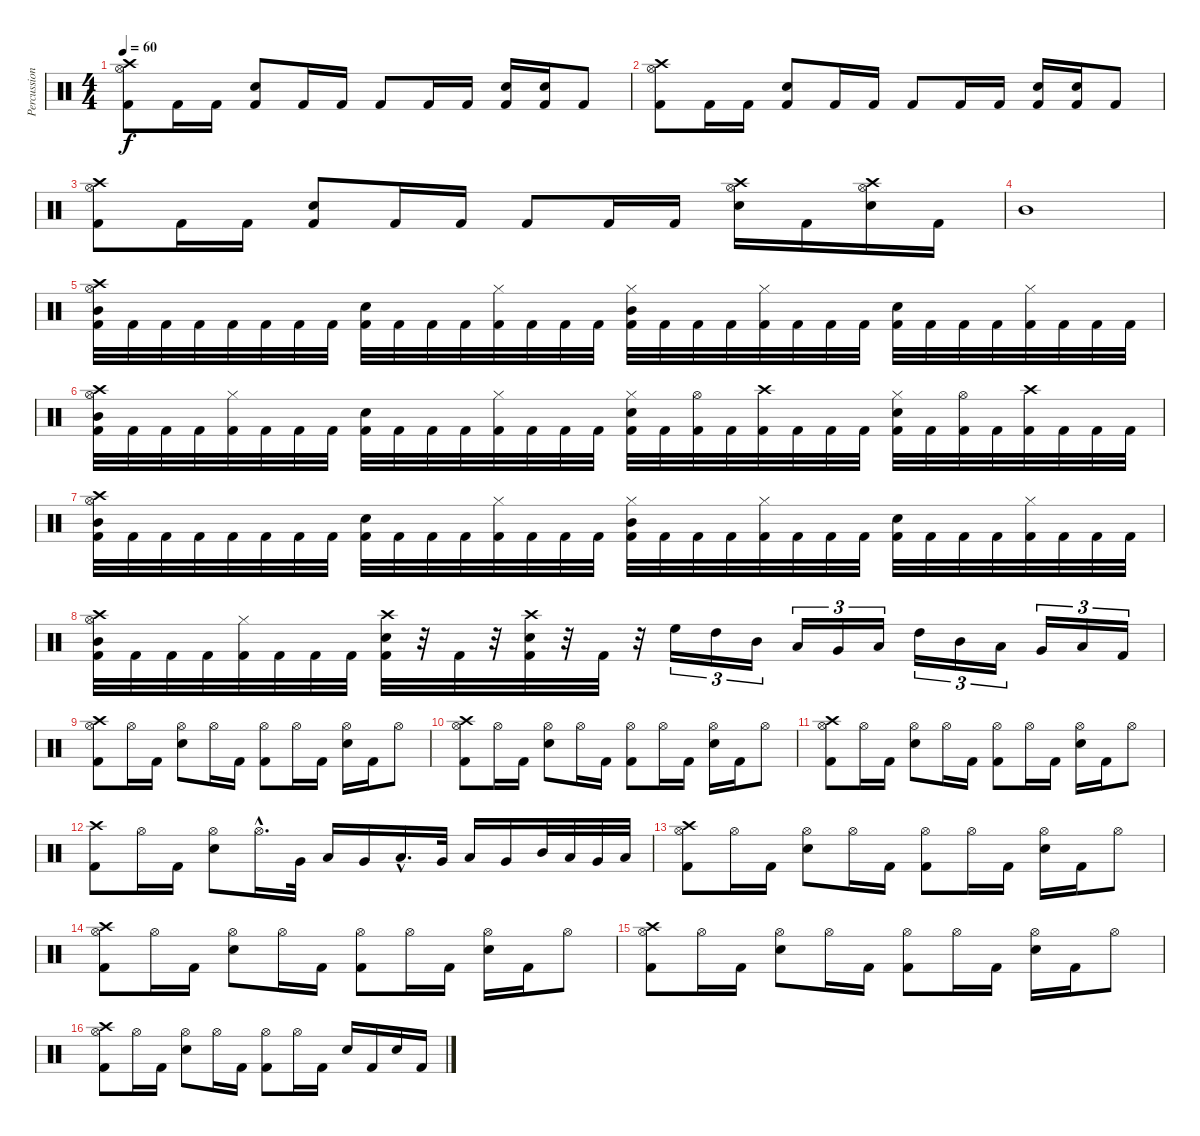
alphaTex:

\track ("Percussion" "Percussion") {instrument percussion}
\staff {score}
\articulation defaults
\ts (4 4)
\tempo 60
\clef neutral
\ks c
("Hi-Hat (open)" "Crash high (hit)" "Kick (hit) 2").8{dy f} "Kick (hit) 2".16 "Kick (hit) 2".16 ("Snare (hit) 2" "Kick (hit) 2").8 "Kick (hit) 2".16 "Kick (hit) 2".16 "Kick (hit) 2".8 "Kick (hit) 2".16 "Kick (hit) 2".16 ("Snare (hit) 2" "Kick (hit) 2").16 ("Snare (hit) 2" "Kick (hit) 2").16 "Kick (hit) 2".8 |
("Hi-Hat (open)" "Crash high (hit)" "Kick (hit) 2").8 "Kick (hit) 2".16 "Kick (hit) 2".16 ("Snare (hit) 2" "Kick (hit) 2").8 "Kick (hit) 2".16 "Kick (hit) 2".16 "Kick (hit) 2".8 "Kick (hit) 2".16 "Kick (hit) 2".16 ("Snare (hit) 2" "Kick (hit) 2").16 ("Snare (hit) 2" "Kick (hit) 2").16 "Kick (hit) 2".8 |
("Hi-Hat (open)" "Crash high (hit)" "Kick (hit) 2").8 "Kick (hit) 2".16 "Kick (hit) 2".16 ("Snare (hit) 2" "Kick (hit) 2").8 "Kick (hit) 2".16 "Kick (hit) 2".16 "Kick (hit) 2".8 "Kick (hit) 2".16 "Kick (hit) 2".16 ("Hi-Hat (open)" "Crash high (hit)" "Snare (hit) 2").16 "Kick (hit) 2".16 ("Hi-Hat (open)" "Crash high (hit)" "Snare (hit) 2").16 "Kick (hit) 2".16 |
"Mid Tom (hit)".1{volume 16} |
("Hi-Hat (open)" "Crash high (hit)" "Mid Tom (hit)" "Kick (hit) 2").32{volume 12} "Kick (hit) 2".32 "Kick (hit) 2".32 "Kick (hit) 2".32 "Kick (hit) 2".32 "Kick (hit) 2".32 "Kick (hit) 2".32 "Kick (hit) 2".32 ("Snare (hit) 2" "Kick (hit) 2").32 "Kick (hit) 2".32 "Kick (hit) 2".32 "Kick (hit) 2".32 ("Hi-Hat (closed)" "Kick (hit) 2").32 "Kick (hit) 2".32 "Kick (hit) 2".32 "Kick (hit) 2".32 ("Hi-Hat (closed)" "Mid Tom (hit)" "Kick (hit) 2").32 "Kick (hit) 2".32 "Kick (hit) 2".32 "Kick (hit) 2".32 ("Hi-Hat (closed)" "Kick (hit) 2").32 "Kick (hit) 2".32 "Kick (hit) 2".32 "Kick (hit) 2".32 ("Snare (hit) 2" "Kick (hit) 2").32 "Kick (hit) 2".32 "Kick (hit) 2".32 "Kick (hit) 2".32 ("Hi-Hat (closed)" "Kick (hit) 2").32 "Kick (hit) 2".32 "Kick (hit) 2".32 "Kick (hit) 2".32 |
("Hi-Hat (open)" "Crash high (hit)" "Mid Tom (hit)" "Kick (hit) 2").32 "Kick (hit) 2".32 "Kick (hit) 2".32 "Kick (hit) 2".32 ("Hi-Hat (closed)" "Kick (hit) 2").32 "Kick (hit) 2".32 "Kick (hit) 2".32 "Kick (hit) 2".32 ("Snare (hit) 2" "Kick (hit) 2").32 "Kick (hit) 2".32 "Kick (hit) 2".32 "Kick (hit) 2".32 ("Hi-Hat (closed)" "Kick (hit) 2").32 "Kick (hit) 2".32 "Kick (hit) 2".32 "Kick (hit) 2".32 ("Hi-Hat (closed)" "Snare (hit) 2" "Kick (hit) 2").32 "Kick (hit) 2".32 ("Hi-Hat (open)" "Kick (hit) 2").32 "Kick (hit) 2".32 ("Crash high (hit)" "Kick (hit) 2").32 "Kick (hit) 2".32 "Kick (hit) 2".32 "Kick (hit) 2".32 ("Hi-Hat (closed)" "Snare (hit) 2" "Kick (hit) 2").32 "Kick (hit) 2".32 ("Hi-Hat (open)" "Kick (hit) 2").32 "Kick (hit) 2".32 ("Crash high (hit)" "Kick (hit) 2").32 "Kick (hit) 2".32 "Kick (hit) 2".32 "Kick (hit) 2".32 |
("Hi-Hat (open)" "Crash high (hit)" "Mid Tom (hit)" "Kick (hit) 2").32 "Kick (hit) 2".32 "Kick (hit) 2".32 "Kick (hit) 2".32 "Kick (hit) 2".32 "Kick (hit) 2".32 "Kick (hit) 2".32 "Kick (hit) 2".32 ("Snare (hit) 2" "Kick (hit) 2").32 "Kick (hit) 2".32 "Kick (hit) 2".32 "Kick (hit) 2".32 ("Hi-Hat (closed)" "Kick (hit) 2").32 "Kick (hit) 2".32 "Kick (hit) 2".32 "Kick (hit) 2".32 ("Hi-Hat (closed)" "Mid Tom (hit)" "Kick (hit) 2").32 "Kick (hit) 2".32 "Kick (hit) 2".32 "Kick (hit) 2".32 ("Hi-Hat (closed)" "Kick (hit) 2").32 "Kick (hit) 2".32 "Kick (hit) 2".32 "Kick (hit) 2".32 ("Snare (hit) 2" "Kick (hit) 2").32 "Kick (hit) 2".32 "Kick (hit) 2".32 "Kick (hit) 2".32 ("Hi-Hat (closed)" "Kick (hit) 2").32 "Kick (hit) 2".32 "Kick (hit) 2".32 "Kick (hit) 2".32 |
("Hi-Hat (open)" "Crash high (hit)" "Mid Tom (hit)" "Kick (hit) 2").32 "Kick (hit) 2".32 "Kick (hit) 2".32 "Kick (hit) 2".32 ("Hi-Hat (closed)" "Kick (hit) 2").32 "Kick (hit) 2".32 "Kick (hit) 2".32 "Kick (hit) 2".32 ("Crash high (hit)" "Snare (hit) 2" "Kick (hit) 2").32 r.32 "Kick (hit) 2".32 r.32 ("Crash high (hit)" "Snare (hit) 2" "Kick (hit) 2").32 r.32 "Kick (hit) 2".32 r.32 "High Floor Tom (hit)".16{tu (3 2)} "High Tom (hit)".16{tu (3 2)} "Mid Tom (hit)".16{tu (3 2)} "Low Tom (hit)".16{tu (3 2)} "Very Low Tom (hit)".16{tu (3 2)} "Low Floor Tom (hit)".16{tu (3 2)} "High Tom (hit)".16{tu (3 2)} "Mid Tom (hit)".16{tu (3 2)} "Low Tom (hit)".16{tu (3 2)} "Very Low Tom (hit)".16{tu (3 2)} "Low Floor Tom (hit)".16{tu (3 2)} "Kick (hit) 2".16{tu (3 2)} |
("Hi-Hat (open)" "Crash high (hit)" "Kick (hit) 2").8 "Hi-Hat (open)".16 "Kick (hit) 2".16 ("Hi-Hat (open)" "Snare (hit) 2").8 "Hi-Hat (open)".16 "Kick (hit) 2".16 ("Hi-Hat (open)" "Kick (hit) 2").8 "Hi-Hat (open)".16 "Kick (hit) 2".16 ("Hi-Hat (open)" "Snare (hit) 2").16 "Kick (hit) 2".16 "Hi-Hat (open)".8 |
("Hi-Hat (open)" "Crash high (hit)" "Kick (hit) 2").8 "Hi-Hat (open)".16 "Kick (hit) 2".16 ("Hi-Hat (open)" "Snare (hit) 2").8 "Hi-Hat (open)".16 "Kick (hit) 2".16 ("Hi-Hat (open)" "Kick (hit) 2").8 "Hi-Hat (open)".16 "Kick (hit) 2".16 ("Hi-Hat (open)" "Snare (hit) 2").16 "Kick (hit) 2".16 "Hi-Hat (open)".8 |
("Hi-Hat (open)" "Crash high (hit)" "Kick (hit) 2").8 "Hi-Hat (open)".16 "Kick (hit) 2".16 ("Hi-Hat (open)" "Snare (hit) 2").8 "Hi-Hat (open)".16 "Kick (hit) 2".16 ("Hi-Hat (open)" "Kick (hit) 2").8 "Hi-Hat (open)".16 "Kick (hit) 2".16 ("Hi-Hat (open)" "Snare (hit) 2").16 "Kick (hit) 2".16 "Hi-Hat (open)".8 |
("Crash high (hit)" "Kick (hit) 2").8 "Hi-Hat (open)".16 "Kick (hit) 2".16 ("Hi-Hat (open)" "Snare (hit) 2").8 "Hi-Hat (open)"{hac}.16{d} "Very Low Tom (hit)".32 "Low Tom (hit)".16 "Very Low Tom (hit)".16 "Low Tom (hit)"{hac}.16{d} "Very Low Tom (hit)".32 "Low Tom (hit)".16 "Very Low Tom (hit)".16 "Mid Tom (hit)".32 "Low Tom (hit)".32 "Very Low Tom (hit)".32 "Low Floor Tom (hit)".32 |
("Hi-Hat (open)" "Crash high (hit)" "Kick (hit) 2").8 "Hi-Hat (open)".16 "Kick (hit) 2".16 ("Hi-Hat (open)" "Snare (hit) 2").8 "Hi-Hat (open)".16 "Kick (hit) 2".16 ("Hi-Hat (open)" "Kick (hit) 2").8 "Hi-Hat (open)".16 "Kick (hit) 2".16 ("Hi-Hat (open)" "Snare (hit) 2").16 "Kick (hit) 2".16 "Hi-Hat (open)".8 |
("Hi-Hat (open)" "Crash high (hit)" "Kick (hit) 2").8 "Hi-Hat (open)".16 "Kick (hit) 2".16 ("Hi-Hat (open)" "Snare (hit) 2").8 "Hi-Hat (open)".16 "Kick (hit) 2".16 ("Hi-Hat (open)" "Kick (hit) 2").8 "Hi-Hat (open)".16 "Kick (hit) 2".16 ("Hi-Hat (open)" "Snare (hit) 2").16 "Kick (hit) 2".16 "Hi-Hat (open)".8 |
("Hi-Hat (open)" "Crash high (hit)" "Kick (hit) 2").8 "Hi-Hat (open)".16 "Kick (hit) 2".16 ("Hi-Hat (open)" "Snare (hit) 2").8 "Hi-Hat (open)".16 "Kick (hit) 2".16 ("Hi-Hat (open)" "Kick (hit) 2").8 "Hi-Hat (open)".16 "Kick (hit) 2".16 ("Hi-Hat (open)" "Snare (hit) 2").16 "Kick (hit) 2".16 "Hi-Hat (open)".8 |
("Hi-Hat (open)" "Crash high (hit)" "Kick (hit) 2").8 "Hi-Hat (open)".16 "Kick (hit) 2".16 ("Hi-Hat (open)" "Snare (hit) 2").8 "Hi-Hat (open)".16 "Kick (hit) 2".16 ("Hi-Hat (open)" "Kick (hit) 2").8 "Hi-Hat (open)".16 "Kick (hit) 2".16 "Snare (hit) 2".16 "Kick (hit) 2".16 "Snare (hit) 2".16 "Kick (hit) 2".16
